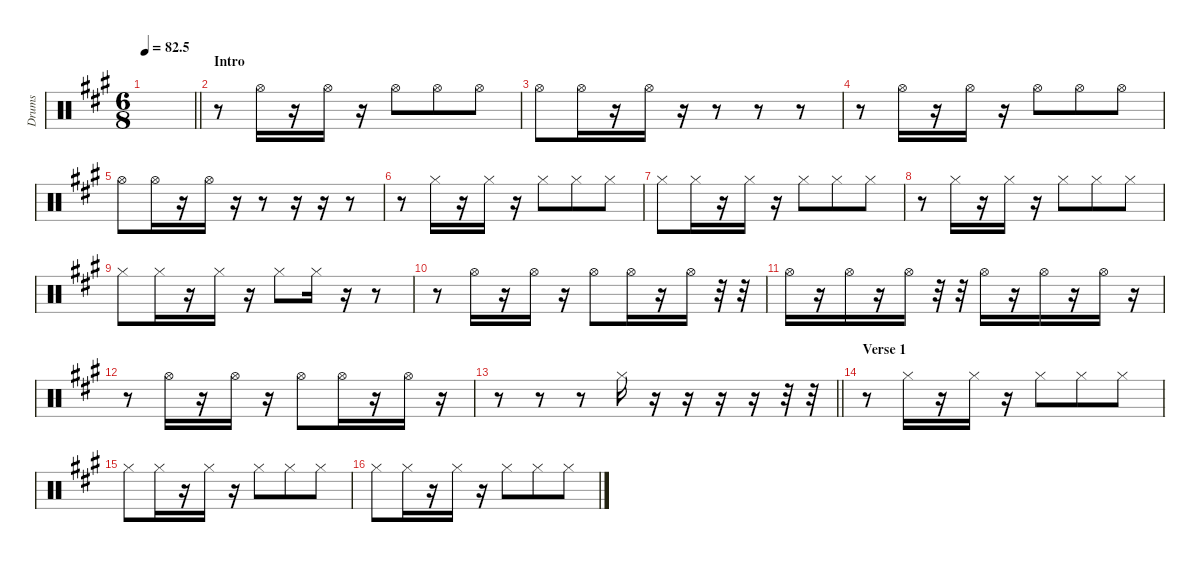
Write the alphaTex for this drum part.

\defaultSystemsLayout 4
\hideDynamics
\bracketExtendMode nobrackets
\otherSystemsTrackNameOrientation horizontal
\track ("Hihat" "Drums") {instrument percussion}
\staff {score}
\articulation defaults
\ts (6 8)
\tempo
82.5
\accidentals auto
\clef neutral
\ottava regular
\simile none
\scale
0.474178
\barLineRight lightlight
\ks a
|
\section ("" "Intro")
\scale
0.262911 r.8 "Hi-Hat (open)"{acc forcenatural}.16 r.16 "Hi-Hat (open)"{acc forcenatural}.16 r.16 "Hi-Hat (open)"{acc forcenatural}.8 "Hi-Hat (open)"{acc forcenatural}.8 "Hi-Hat (open)"{acc forcenatural}.8 |
\scale
0.262911 "Hi-Hat (open)"{acc forcenatural}.8 "Hi-Hat (open)"{acc forcenatural}.16 r.16 "Hi-Hat (open)"{acc forcenatural}.16 r.16 r.8 r.8 r.8 |
\scale
0.333333 r.8 "Hi-Hat (open)"{acc forcenatural}.16 r.16 "Hi-Hat (open)"{acc forcenatural}.16 r.16 "Hi-Hat (open)"{acc forcenatural}.8 "Hi-Hat (open)"{acc forcenatural}.8 "Hi-Hat (open)"{acc forcenatural}.8 |
\scale
0.333333 "Hi-Hat (open)"{acc forcenatural}.8 "Hi-Hat (open)"{acc forcenatural}.16 r.16 "Hi-Hat (open)"{acc forcenatural}.16 r.16 r.8 r.16 r.16 r.8 |
\scale
0.333333 r.8 "Hi-Hat (closed)"{acc forcenatural}.16 r.16 "Hi-Hat (closed)"{acc forcenatural}.16 r.16 "Hi-Hat (closed)"{acc forcenatural}.8 "Hi-Hat (closed)"{acc forcenatural}.8 "Hi-Hat (closed)"{acc forcenatural}.8 |
\scale
0.333333 "Hi-Hat (closed)"{acc forcenatural}.8 "Hi-Hat (closed)"{acc forcenatural}.16 r.16 "Hi-Hat (closed)"{acc forcenatural}.16 r.16 "Hi-Hat (closed)"{acc forcenatural}.8 "Hi-Hat (closed)"{acc forcenatural}.8 "Hi-Hat (closed)"{acc forcenatural}.8 |
\scale
0.333333 r.8 "Hi-Hat (closed)"{acc forcenatural}.16 r.16 "Hi-Hat (closed)"{acc forcenatural}.16 r.16 "Hi-Hat (closed)"{acc forcenatural}.8 "Hi-Hat (closed)"{acc forcenatural}.8 "Hi-Hat (closed)"{acc forcenatural}.8 |
\scale
0.333333 "Hi-Hat (closed)"{acc forcenatural}.8 "Hi-Hat (closed)"{acc forcenatural}.16 r.16 "Hi-Hat (closed)"{acc forcenatural}.16 r.16 "Hi-Hat (closed)"{acc forcenatural}.8 "Hi-Hat (closed)"{acc forcenatural}.16 r.16 r.8 |
\scale
0.333333 r.8 "Hi-Hat (open)"{acc forcenatural}.16 r.16 "Hi-Hat (open)"{acc forcenatural}.16 r.16 "Hi-Hat (open)"{acc forcenatural}.8 "Hi-Hat (open)"{acc forcenatural}.16 r.16 "Hi-Hat (open)"{acc forcenatural}.16 r.32 r.32 |
\scale
0.333333 "Hi-Hat (open)"{acc forcenatural}.16 r.16 "Hi-Hat (open)"{acc forcenatural}.16 r.16 "Hi-Hat (open)"{acc forcenatural}.16 r.32 r.32 "Hi-Hat (open)"{acc forcenatural}.16 r.16 "Hi-Hat (open)"{acc forcenatural}.16 r.16 "Hi-Hat (open)"{acc forcenatural}.16 r.16 |
\scale
0.333333 r.8 "Hi-Hat (open)"{acc forcenatural}.16 r.16 "Hi-Hat (open)"{acc forcenatural}.16 r.16 "Hi-Hat (open)"{acc forcenatural}.8 "Hi-Hat (open)"{acc forcenatural}.16 r.16 "Hi-Hat (open)"{acc forcenatural}.16 r.16 |
\scale
0.333333
\barLineRight lightlight
r.8 r.8 r.8 "Hi-Hat (closed)"{acc forcenatural}.16 r.16 r.16 r.16 r.16 r.32 r.32 |
\section ("" "Verse 1")
\scale
0.333333 r.8 "Hi-Hat (closed)"{acc forcenatural}.16 r.16 "Hi-Hat (closed)"{acc forcenatural}.16 r.16 "Hi-Hat (closed)"{acc forcenatural}.8 "Hi-Hat (closed)"{acc forcenatural}.8 "Hi-Hat (closed)"{acc forcenatural}.8 |
\scale
0.333333 "Hi-Hat (closed)"{acc forcenatural}.8 "Hi-Hat (closed)"{acc forcenatural}.16 r.16 "Hi-Hat (closed)"{acc forcenatural}.16 r.16 "Hi-Hat (closed)"{acc forcenatural}.8 "Hi-Hat (closed)"{acc forcenatural}.8 "Hi-Hat (closed)"{acc forcenatural}.8 |
\scale
0.333333 "Hi-Hat (closed)"{acc forcenatural}.8 "Hi-Hat (closed)"{acc forcenatural}.16 r.16 "Hi-Hat (closed)"{acc forcenatural}.16 r.16 "Hi-Hat (closed)"{acc forcenatural}.8 "Hi-Hat (closed)"{acc forcenatural}.8 "Hi-Hat (closed)"{acc forcenatural}.8
